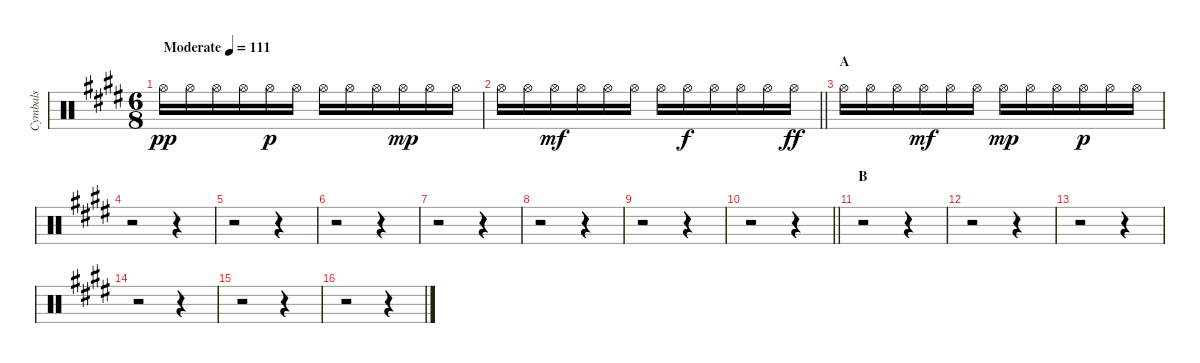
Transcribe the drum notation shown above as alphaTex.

\track ("Cymbals" "Cymbals") {instrument percussion}
\staff {score}
\articulation defaults
\ts (6 8)
\tempo (111 "Moderate")
\clef neutral
\ks e "Hi-Hat (open)".16{dy pp} "Hi-Hat (open)".16 "Hi-Hat (open)".16 "Hi-Hat (open)".16 "Hi-Hat (open)".16{dy p} "Hi-Hat (open)".16 "Hi-Hat (open)".16 "Hi-Hat (open)".16 "Hi-Hat (open)".16 "Hi-Hat (open)".16{dy mp} "Hi-Hat (open)".16 "Hi-Hat (open)".16
|
\barLineRight lightlight "Hi-Hat (open)".16 "Hi-Hat (open)".16 "Hi-Hat (open)".16{dy mf} "Hi-Hat (open)".16 "Hi-Hat (open)".16 "Hi-Hat (open)".16 "Hi-Hat (open)".16 "Hi-Hat (open)".16{dy f} "Hi-Hat (open)".16 "Hi-Hat (open)".16 "Hi-Hat (open)".16 "Hi-Hat (open)".16{dy ff}
|
\section ("" "A")
"Hi-Hat (open)".16 "Hi-Hat (open)".16 "Hi-Hat (open)".16 "Hi-Hat (open)".16{dy mf} "Hi-Hat (open)".16 "Hi-Hat (open)".16 "Hi-Hat (open)".16{dy mp} "Hi-Hat (open)".16 "Hi-Hat (open)".16 "Hi-Hat (open)".16{dy p} "Hi-Hat (open)".16 "Hi-Hat (open)".16 |
r.2 r.4 |
r.2 r.4 |
r.2 r.4 |
r.2 r.4 |
r.2 r.4 |
r.2 r.4 |
\barLineRight lightlight
r.2 r.4 |
\section ("" "B")
r.2 r.4 |
r.2 r.4 |
r.2 r.4 |
r.2 r.4 |
r.2 r.4 |
r.2 r.4
